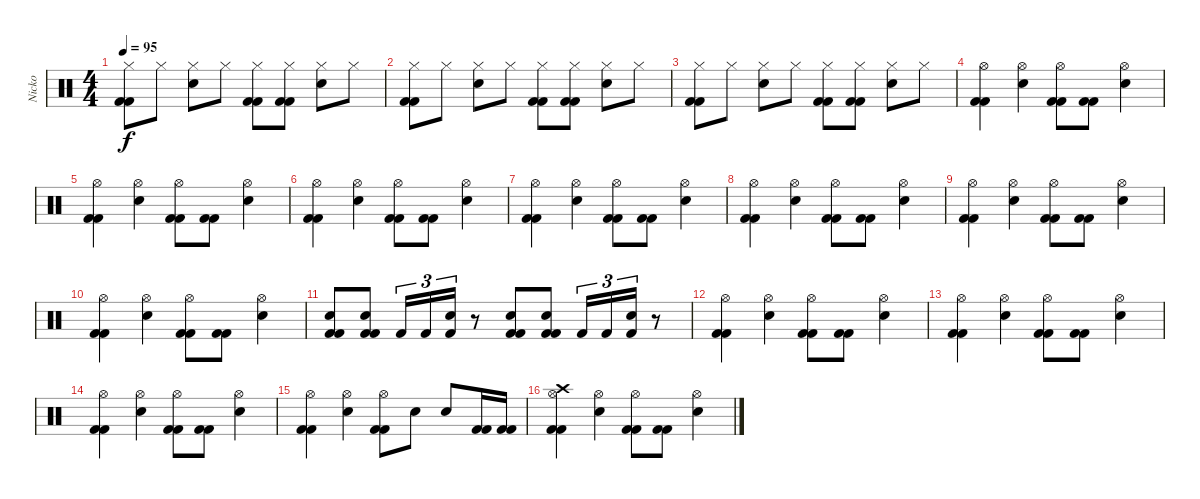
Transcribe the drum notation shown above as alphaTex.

\track ("Nicko " "Nicko ") {instrument percussion}
\staff {score}
\articulation defaults
\ts (4 4)
\tempo 95
\clef neutral
\ks c
("Hi-Hat (closed)" "Kick (hit) 2" "Kick (hit) 2").8{dy f} "Hi-Hat (closed)".8 ("Hi-Hat (closed)" "Snare (hit) 2").8 "Hi-Hat (closed)".8 ("Hi-Hat (closed)" "Kick (hit) 2" "Kick (hit) 2").8 ("Hi-Hat (closed)" "Kick (hit) 2" "Kick (hit) 2").8 ("Hi-Hat (closed)" "Snare (hit) 2").8 "Hi-Hat (closed)".8 |
("Hi-Hat (closed)" "Kick (hit) 2" "Kick (hit) 2").8 "Hi-Hat (closed)".8 ("Hi-Hat (closed)" "Snare (hit) 2").8 "Hi-Hat (closed)".8 ("Hi-Hat (closed)" "Kick (hit) 2" "Kick (hit) 2").8 ("Hi-Hat (closed)" "Kick (hit) 2" "Kick (hit) 2").8 ("Hi-Hat (closed)" "Snare (hit) 2").8 "Hi-Hat (closed)".8 |
("Hi-Hat (closed)" "Kick (hit) 2" "Kick (hit) 2").8 "Hi-Hat (closed)".8 ("Hi-Hat (closed)" "Snare (hit) 2").8 "Hi-Hat (closed)".8 ("Hi-Hat (closed)" "Kick (hit) 2" "Kick (hit) 2").8 ("Hi-Hat (closed)" "Kick (hit) 2" "Kick (hit) 2").8 ("Hi-Hat (closed)" "Snare (hit) 2").8 "Hi-Hat (closed)".8 |
("Hi-Hat (open)" "Kick (hit) 2" "Kick (hit) 2").4 ("Hi-Hat (open)" "Snare (hit) 2").4 ("Hi-Hat (open)" "Kick (hit) 2" "Kick (hit) 2").8 ("Kick (hit) 2" "Kick (hit) 2").8 ("Hi-Hat (open)" "Snare (hit) 2").4 |
("Hi-Hat (open)" "Kick (hit) 2" "Kick (hit) 2").4 ("Hi-Hat (open)" "Snare (hit) 2").4 ("Hi-Hat (open)" "Kick (hit) 2" "Kick (hit) 2").8 ("Kick (hit) 2" "Kick (hit) 2").8 ("Hi-Hat (open)" "Snare (hit) 2").4 |
("Hi-Hat (open)" "Kick (hit) 2" "Kick (hit) 2").4 ("Hi-Hat (open)" "Snare (hit) 2").4 ("Hi-Hat (open)" "Kick (hit) 2" "Kick (hit) 2").8 ("Kick (hit) 2" "Kick (hit) 2").8 ("Hi-Hat (open)" "Snare (hit) 2").4 |
("Hi-Hat (open)" "Kick (hit) 2" "Kick (hit) 2").4 ("Hi-Hat (open)" "Snare (hit) 2").4 ("Hi-Hat (open)" "Kick (hit) 2" "Kick (hit) 2").8 ("Kick (hit) 2" "Kick (hit) 2").8 ("Hi-Hat (open)" "Snare (hit) 2").4 |
("Hi-Hat (open)" "Kick (hit) 2" "Kick (hit) 2").4 ("Hi-Hat (open)" "Snare (hit) 2").4 ("Hi-Hat (open)" "Kick (hit) 2" "Kick (hit) 2").8 ("Kick (hit) 2" "Kick (hit) 2").8 ("Hi-Hat (open)" "Snare (hit) 2").4 |
("Hi-Hat (open)" "Kick (hit) 2" "Kick (hit) 2").4 ("Hi-Hat (open)" "Snare (hit) 2").4 ("Hi-Hat (open)" "Kick (hit) 2" "Kick (hit) 2").8 ("Kick (hit) 2" "Kick (hit) 2").8 ("Hi-Hat (open)" "Snare (hit) 2").4 |
("Hi-Hat (open)" "Kick (hit) 2" "Kick (hit) 2").4 ("Hi-Hat (open)" "Snare (hit) 2").4 ("Hi-Hat (open)" "Kick (hit) 2" "Kick (hit) 2").8 ("Kick (hit) 2" "Kick (hit) 2").8 ("Hi-Hat (open)" "Snare (hit) 2").4 |
("Snare (hit) 2" "Kick (hit) 2" "Kick (hit) 2").8 ("Snare (hit) 2" "Kick (hit) 2" "Kick (hit) 2").8 "Kick (hit) 2".16{tu (3 2)} "Kick (hit) 2".16{tu (3 2)} ("Snare (hit) 2" "Kick (hit) 2").16{tu (3 2)} r.8 ("Snare (hit) 2" "Kick (hit) 2" "Kick (hit) 2").8 ("Snare (hit) 2" "Kick (hit) 2" "Kick (hit) 2").8 "Kick (hit) 2".16{tu (3 2)} "Kick (hit) 2".16{tu (3 2)} ("Snare (hit) 2" "Kick (hit) 2").16{tu (3 2)} r.8 |
("Hi-Hat (open)" "Kick (hit) 2" "Kick (hit) 2").4 ("Hi-Hat (open)" "Snare (hit) 2").4 ("Hi-Hat (open)" "Kick (hit) 2" "Kick (hit) 2").8 ("Kick (hit) 2" "Kick (hit) 2").8 ("Hi-Hat (open)" "Snare (hit) 2").4 |
("Hi-Hat (open)" "Kick (hit) 2" "Kick (hit) 2").4 ("Hi-Hat (open)" "Snare (hit) 2").4 ("Hi-Hat (open)" "Kick (hit) 2" "Kick (hit) 2").8 ("Kick (hit) 2" "Kick (hit) 2").8 ("Hi-Hat (open)" "Snare (hit) 2").4 |
("Hi-Hat (open)" "Kick (hit) 2" "Kick (hit) 2").4 ("Hi-Hat (open)" "Snare (hit) 2").4 ("Hi-Hat (open)" "Kick (hit) 2" "Kick (hit) 2").8 ("Kick (hit) 2" "Kick (hit) 2").8 ("Hi-Hat (open)" "Snare (hit) 2").4 |
("Hi-Hat (open)" "Kick (hit) 2" "Kick (hit) 2").4 ("Hi-Hat (open)" "Snare (hit) 2").4 ("Hi-Hat (open)" "Kick (hit) 2" "Kick (hit) 2").8 "Snare (hit) 2".8 "Snare (hit) 2".8 ("Kick (hit) 2" "Kick (hit) 2").16 ("Kick (hit) 2" "Kick (hit) 2").16 |
("Hi-Hat (open)" "Kick (hit) 2" "Kick (hit) 2" "Crash high (hit)").4 ("Hi-Hat (open)" "Snare (hit) 2").4 ("Hi-Hat (open)" "Kick (hit) 2" "Kick (hit) 2").8 ("Kick (hit) 2" "Kick (hit) 2").8 ("Hi-Hat (open)" "Snare (hit) 2").4
